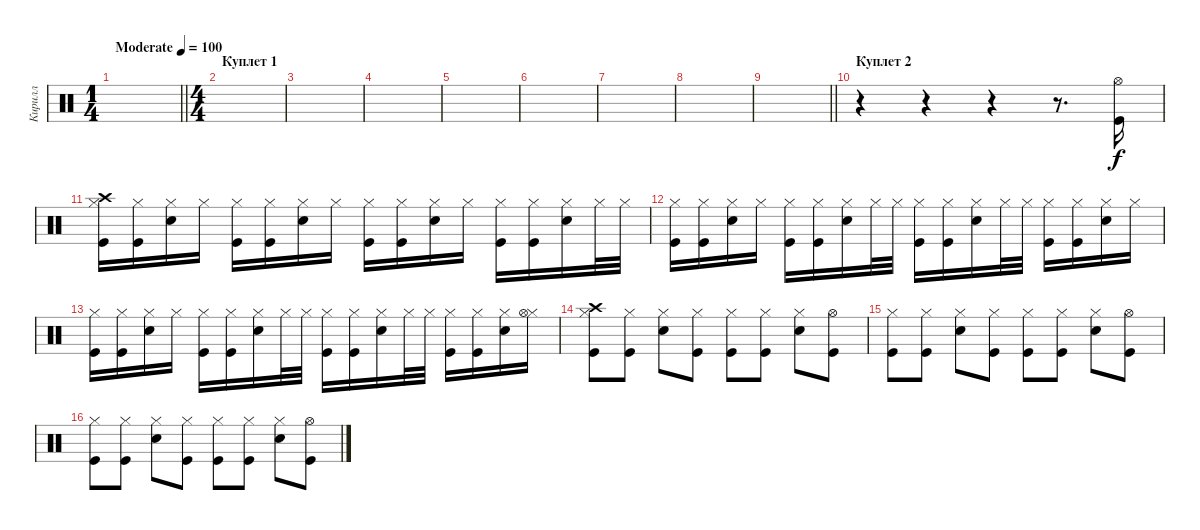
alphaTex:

\track ("Кирилл " "Кирилл ") {instrument percussion}
\staff {score}
\articulation defaults
\ts (1 4)
\tempo (100 "Moderate")
\clef neutral
\barLineRight lightlight
\ks c
|
\ts (4 4)
\section ("" "Куплет 1")
|
|
|
|
|
|
|
\barLineRight lightlight
|
\section ("" "Куплет 2")
r.4 r.4 r.4 r.8{d} ("Hi-Hat (open)" "Kick (hit)").16 |
("Hi-Hat (closed)" "Crash high (hit)" "Kick (hit)").16 ("Hi-Hat (closed)" "Kick (hit)").16 ("Hi-Hat (closed)" "Electric Snare (hit)").16 "Hi-Hat (closed)".16 ("Hi-Hat (closed)" "Kick (hit)").16 ("Hi-Hat (closed)" "Kick (hit)").16 ("Hi-Hat (closed)" "Electric Snare (hit)").16 "Hi-Hat (closed)".16 ("Hi-Hat (closed)" "Kick (hit)").16 ("Hi-Hat (closed)" "Kick (hit)").16 ("Hi-Hat (closed)" "Electric Snare (hit)").16 "Hi-Hat (closed)".16 ("Hi-Hat (closed)" "Kick (hit)").16 ("Hi-Hat (closed)" "Kick (hit)").16 ("Hi-Hat (closed)" "Electric Snare (hit)").16 "Hi-Hat (closed)".32 "Hi-Hat (closed)".32 |
("Hi-Hat (closed)" "Kick (hit)").16 ("Hi-Hat (closed)" "Kick (hit)").16 ("Hi-Hat (closed)" "Electric Snare (hit)").16 "Hi-Hat (closed)".16 ("Hi-Hat (closed)" "Kick (hit)").16 ("Hi-Hat (closed)" "Kick (hit)").16 ("Hi-Hat (closed)" "Electric Snare (hit)").16 "Hi-Hat (closed)".32 "Hi-Hat (closed)".32 ("Hi-Hat (closed)" "Kick (hit)").16 ("Hi-Hat (closed)" "Kick (hit)").16 ("Hi-Hat (closed)" "Electric Snare (hit)").16 "Hi-Hat (closed)".32 "Hi-Hat (closed)".32 ("Hi-Hat (closed)" "Kick (hit)").16 ("Hi-Hat (closed)" "Kick (hit)").16 ("Hi-Hat (closed)" "Electric Snare (hit)").16 "Hi-Hat (closed)".16 |
("Hi-Hat (closed)" "Kick (hit)").16 ("Hi-Hat (closed)" "Kick (hit)").16 ("Hi-Hat (closed)" "Electric Snare (hit)").16 "Hi-Hat (closed)".16 ("Hi-Hat (closed)" "Kick (hit)").16 ("Hi-Hat (closed)" "Kick (hit)").16 ("Hi-Hat (closed)" "Electric Snare (hit)").16 "Hi-Hat (closed)".32 "Hi-Hat (closed)".32 ("Hi-Hat (closed)" "Kick (hit)").16 ("Hi-Hat (closed)" "Kick (hit)").16 ("Hi-Hat (closed)" "Electric Snare (hit)").16 "Hi-Hat (closed)".32 "Hi-Hat (closed)".32 ("Hi-Hat (closed)" "Kick (hit)").16 ("Hi-Hat (closed)" "Kick (hit)").16 ("Hi-Hat (closed)" "Electric Snare (hit)").16 ("Hi-Hat (closed)" "Hi-Hat (open)").16 |
("Hi-Hat (closed)" "Crash high (hit)" "Kick (hit)").8 ("Hi-Hat (closed)" "Kick (hit)").8 ("Hi-Hat (closed)" "Electric Snare (hit)").8 ("Hi-Hat (closed)" "Kick (hit)").8 ("Hi-Hat (closed)" "Kick (hit)").8 ("Hi-Hat (closed)" "Kick (hit)").8 ("Hi-Hat (closed)" "Electric Snare (hit)").8 ("Hi-Hat (open)" "Kick (hit)").8 |
("Hi-Hat (closed)" "Kick (hit)").8 ("Hi-Hat (closed)" "Kick (hit)").8 ("Hi-Hat (closed)" "Electric Snare (hit)").8 ("Hi-Hat (closed)" "Kick (hit)").8 ("Hi-Hat (closed)" "Kick (hit)").8 ("Hi-Hat (closed)" "Kick (hit)").8 ("Hi-Hat (closed)" "Electric Snare (hit)").8 ("Hi-Hat (open)" "Kick (hit)").8 |
("Hi-Hat (closed)" "Kick (hit)").8 ("Hi-Hat (closed)" "Kick (hit)").8 ("Hi-Hat (closed)" "Electric Snare (hit)").8 ("Hi-Hat (closed)" "Kick (hit)").8 ("Hi-Hat (closed)" "Kick (hit)").8 ("Hi-Hat (closed)" "Kick (hit)").8 ("Hi-Hat (closed)" "Electric Snare (hit)").8 ("Hi-Hat (open)" "Kick (hit)").8
